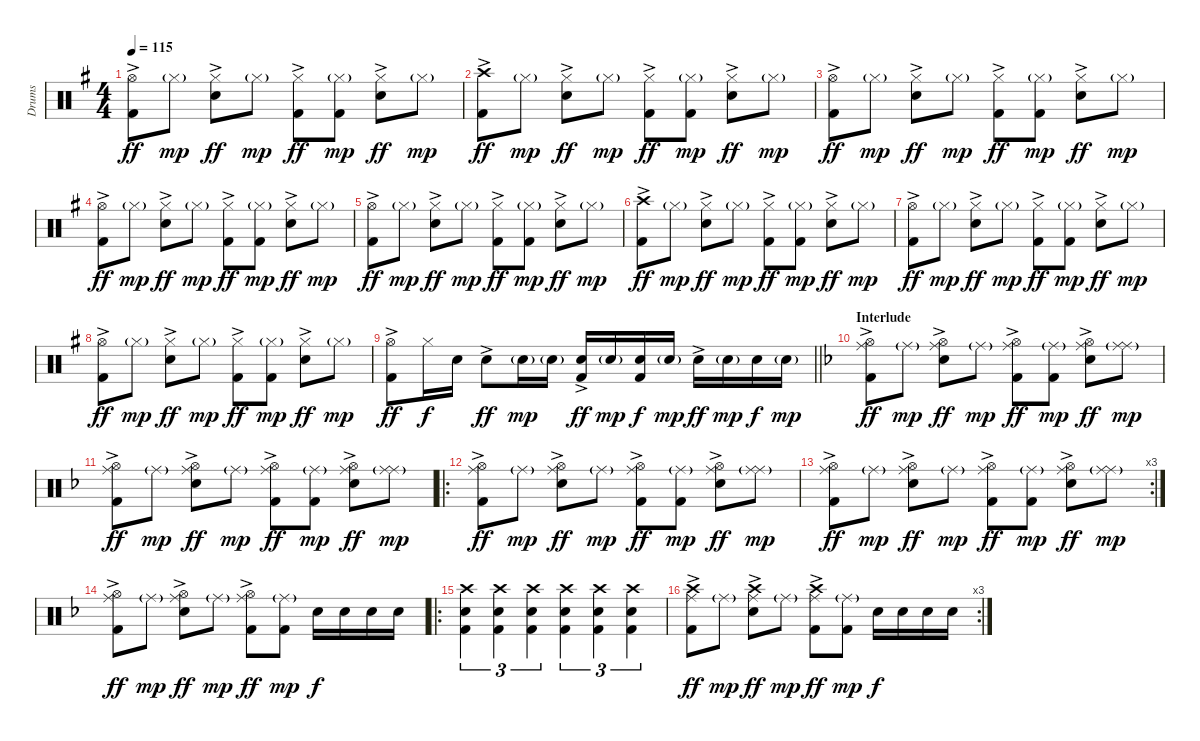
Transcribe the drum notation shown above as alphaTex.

\track ("Drums" "Drums") {instrument percussion}
\staff {score}
\articulation defaults
\ts (4 4)
\tempo 115
\clef neutral
\ks g
("Hi-Hat (open)" "Kick (hit) 2"{ac}).8{dy ff} "Hi-Hat (closed)"{g}.8{dy mp} ("Hi-Hat (closed)" "Snare (hit) 2"{ac}).8{dy ff} "Hi-Hat (closed)"{g}.8{dy mp} ("Hi-Hat (closed)" "Kick (hit) 2"{ac}).8{dy ff} ("Hi-Hat (closed)"{g} "Kick (hit) 2").8{dy mp} ("Hi-Hat (closed)" "Snare (hit) 2"{ac}).8{dy ff} "Hi-Hat (closed)"{g}.8{dy mp} |
("Crash high (hit)" "Kick (hit) 2"{ac}).8{dy ff} "Hi-Hat (closed)"{g}.8{dy mp} ("Hi-Hat (closed)" "Snare (hit) 2"{ac}).8{dy ff} "Hi-Hat (closed)"{g}.8{dy mp} ("Hi-Hat (closed)" "Kick (hit) 2"{ac}).8{dy ff} ("Hi-Hat (closed)"{g} "Kick (hit) 2").8{dy mp} ("Hi-Hat (closed)" "Snare (hit) 2"{ac}).8{dy ff} "Hi-Hat (closed)"{g}.8{dy mp} |
("Hi-Hat (open)" "Kick (hit) 2"{ac}).8{dy ff} "Hi-Hat (closed)"{g}.8{dy mp} ("Hi-Hat (closed)" "Snare (hit) 2"{ac}).8{dy ff} "Hi-Hat (closed)"{g}.8{dy mp} ("Hi-Hat (closed)" "Kick (hit) 2"{ac}).8{dy ff} ("Hi-Hat (closed)"{g} "Kick (hit) 2").8{dy mp} ("Hi-Hat (closed)" "Snare (hit) 2"{ac}).8{dy ff} "Hi-Hat (closed)"{g}.8{dy mp} |
("Hi-Hat (open)" "Kick (hit) 2"{ac}).8{dy ff} "Hi-Hat (closed)"{g}.8{dy mp} ("Hi-Hat (closed)" "Snare (hit) 2"{ac}).8{dy ff} "Hi-Hat (closed)"{g}.8{dy mp} ("Hi-Hat (closed)" "Kick (hit) 2"{ac}).8{dy ff} ("Hi-Hat (closed)"{g} "Kick (hit) 2").8{dy mp} ("Hi-Hat (closed)" "Snare (hit) 2"{ac}).8{dy ff} "Hi-Hat (closed)"{g}.8{dy mp} |
("Hi-Hat (open)" "Kick (hit) 2"{ac}).8{dy ff} "Hi-Hat (closed)"{g}.8{dy mp} ("Hi-Hat (closed)" "Snare (hit) 2"{ac}).8{dy ff} "Hi-Hat (closed)"{g}.8{dy mp} ("Hi-Hat (closed)" "Kick (hit) 2"{ac}).8{dy ff} ("Hi-Hat (closed)"{g} "Kick (hit) 2").8{dy mp} ("Hi-Hat (closed)" "Snare (hit) 2"{ac}).8{dy ff} "Hi-Hat (closed)"{g}.8{dy mp} |
("Crash high (hit)" "Kick (hit) 2"{ac}).8{dy ff} "Hi-Hat (closed)"{g}.8{dy mp} ("Hi-Hat (closed)" "Snare (hit) 2"{ac}).8{dy ff} "Hi-Hat (closed)"{g}.8{dy mp} ("Hi-Hat (closed)" "Kick (hit) 2"{ac}).8{dy ff} ("Hi-Hat (closed)"{g} "Kick (hit) 2").8{dy mp} ("Hi-Hat (closed)" "Snare (hit) 2"{ac}).8{dy ff} "Hi-Hat (closed)"{g}.8{dy mp} |
("Hi-Hat (open)" "Kick (hit) 2"{ac}).8{dy ff} "Hi-Hat (closed)"{g}.8{dy mp} ("Hi-Hat (closed)" "Snare (hit) 2"{ac}).8{dy ff} "Hi-Hat (closed)"{g}.8{dy mp} ("Hi-Hat (closed)" "Kick (hit) 2"{ac}).8{dy ff} ("Hi-Hat (closed)"{g} "Kick (hit) 2").8{dy mp} ("Hi-Hat (closed)" "Snare (hit) 2"{ac}).8{dy ff} "Hi-Hat (closed)"{g}.8{dy mp} |
("Hi-Hat (open)" "Kick (hit) 2"{ac}).8{dy ff} "Hi-Hat (closed)"{g}.8{dy mp} ("Hi-Hat (closed)" "Snare (hit) 2"{ac}).8{dy ff} "Hi-Hat (closed)"{g}.8{dy mp} ("Hi-Hat (closed)" "Kick (hit) 2"{ac}).8{dy ff} ("Hi-Hat (closed)"{g} "Kick (hit) 2").8{dy mp} ("Hi-Hat (closed)" "Snare (hit) 2"{ac}).8{dy ff} "Hi-Hat (closed)"{g}.8{dy mp} |
\barLineRight lightlight
("Hi-Hat (open)" "Kick (hit) 2"{ac}).8{dy ff} "Hi-Hat (closed)".16{dy f} "Snare (hit) 2".16 "Snare (hit) 2"{ac}.8{dy ff} "Snare (hit) 2"{g}.16{dy mp} "Snare (hit) 2"{g}.16 ("Snare (hit) 2" "Kick (hit) 2"{ac}).16{dy ff} "Snare (hit) 2"{g}.16{dy mp} ("Snare (hit) 2" "Kick (hit) 2").16{dy f} "Snare (hit) 2"{g}.16{dy mp} "Snare (hit) 2"{ac}.16{dy ff} "Snare (hit) 2"{g}.16{dy mp} "Snare (hit) 2".16{dy f} "Snare (hit) 2"{g}.16{dy mp} |
\section ("" "Interlude")
\ks f
("Ride (middle)" "Hi-Hat (open)" "Kick (hit) 2"{ac}).8{dy ff} "Ride (middle)"{g}.8{dy mp} ("Ride (middle)" "Hi-Hat (open)" "Snare (hit) 2"{ac}).8{dy ff} "Ride (middle)"{g}.8{dy mp} ("Ride (middle)" "Hi-Hat (open)" "Kick (hit) 2"{ac}).8{dy ff} ("Ride (middle)"{g} "Kick (hit) 2").8{dy mp} ("Ride (middle)" "Hi-Hat (open)" "Snare (hit) 2"{ac}).8{dy ff} ("Ride (middle)"{g} "Ride (middle)").8{dy mp} |
("Ride (middle)" "Hi-Hat (open)" "Kick (hit) 2"{ac}).8{dy ff} "Ride (middle)"{g}.8{dy mp} ("Ride (middle)" "Hi-Hat (open)" "Snare (hit) 2"{ac}).8{dy ff} "Ride (middle)"{g}.8{dy mp} ("Ride (middle)" "Hi-Hat (open)" "Kick (hit) 2"{ac}).8{dy ff} ("Ride (middle)"{g} "Kick (hit) 2").8{dy mp} ("Ride (middle)" "Hi-Hat (open)" "Snare (hit) 2"{ac}).8{dy ff} ("Ride (middle)"{g} "Ride (middle)").8{dy mp} |
\ro
("Ride (middle)" "Hi-Hat (open)" "Kick (hit) 2"{ac}).8{dy ff} "Ride (middle)"{g}.8{dy mp} ("Ride (middle)" "Hi-Hat (open)" "Snare (hit) 2"{ac}).8{dy ff} "Ride (middle)"{g}.8{dy mp} ("Ride (middle)" "Hi-Hat (open)" "Kick (hit) 2"{ac}).8{dy ff} ("Ride (middle)"{g} "Kick (hit) 2").8{dy mp} ("Ride (middle)" "Hi-Hat (open)" "Snare (hit) 2"{ac}).8{dy ff} ("Ride (middle)"{g} "Ride (middle)").8{dy mp} |
\rc 3
("Ride (middle)" "Hi-Hat (open)" "Kick (hit) 2"{ac}).8{dy ff} "Ride (middle)"{g}.8{dy mp} ("Ride (middle)" "Hi-Hat (open)" "Snare (hit) 2"{ac}).8{dy ff} "Ride (middle)"{g}.8{dy mp} ("Ride (middle)" "Hi-Hat (open)" "Kick (hit) 2"{ac}).8{dy ff} ("Ride (middle)"{g} "Kick (hit) 2").8{dy mp} ("Ride (middle)" "Hi-Hat (open)" "Snare (hit) 2"{ac}).8{dy ff} ("Ride (middle)"{g} "Ride (middle)").8{dy mp} |
("Ride (middle)" "Hi-Hat (open)" "Kick (hit) 2"{ac}).8{dy ff} "Ride (middle)"{g}.8{dy mp} ("Ride (middle)" "Hi-Hat (open)" "Snare (hit) 2"{ac}).8{dy ff} "Ride (middle)"{g}.8{dy mp} ("Ride (middle)" "Hi-Hat (open)" "Kick (hit) 2"{ac}).8{dy ff} ("Ride (middle)"{g} "Kick (hit) 2").8{dy mp} "Snare (hit) 2".16{dy f} "Snare (hit) 2".16 "Snare (hit) 2".16 "Snare (hit) 2".16 |
\ro
("Crash high (hit)" "Snare (hit) 2" "Kick (hit) 2").4{tu (3 2)} ("Crash high (hit)" "Snare (hit) 2" "Kick (hit) 2").4{tu (3 2)} ("Crash high (hit)" "Snare (hit) 2" "Kick (hit) 2").4{tu (3 2)} ("Crash high (hit)" "Snare (hit) 2" "Kick (hit) 2").4{tu (3 2)} ("Crash high (hit)" "Snare (hit) 2" "Kick (hit) 2").4{tu (3 2)} ("Crash high (hit)" "Snare (hit) 2" "Kick (hit) 2").4{tu (3 2)} |
\rc 3
("Ride (middle)" "Crash high (hit)" "Kick (hit) 2"{ac}).8{dy ff} "Ride (middle)"{g}.8{dy mp} ("Ride (middle)" "Crash high (hit)" "Snare (hit) 2"{ac}).8{dy ff} "Ride (middle)"{g}.8{dy mp} ("Ride (middle)" "Crash high (hit)" "Kick (hit) 2"{ac}).8{dy ff} ("Ride (middle)"{g} "Kick (hit) 2").8{dy mp} "Snare (hit) 2".16{dy f} "Snare (hit) 2".16 "Snare (hit) 2".16 "Snare (hit) 2".16
